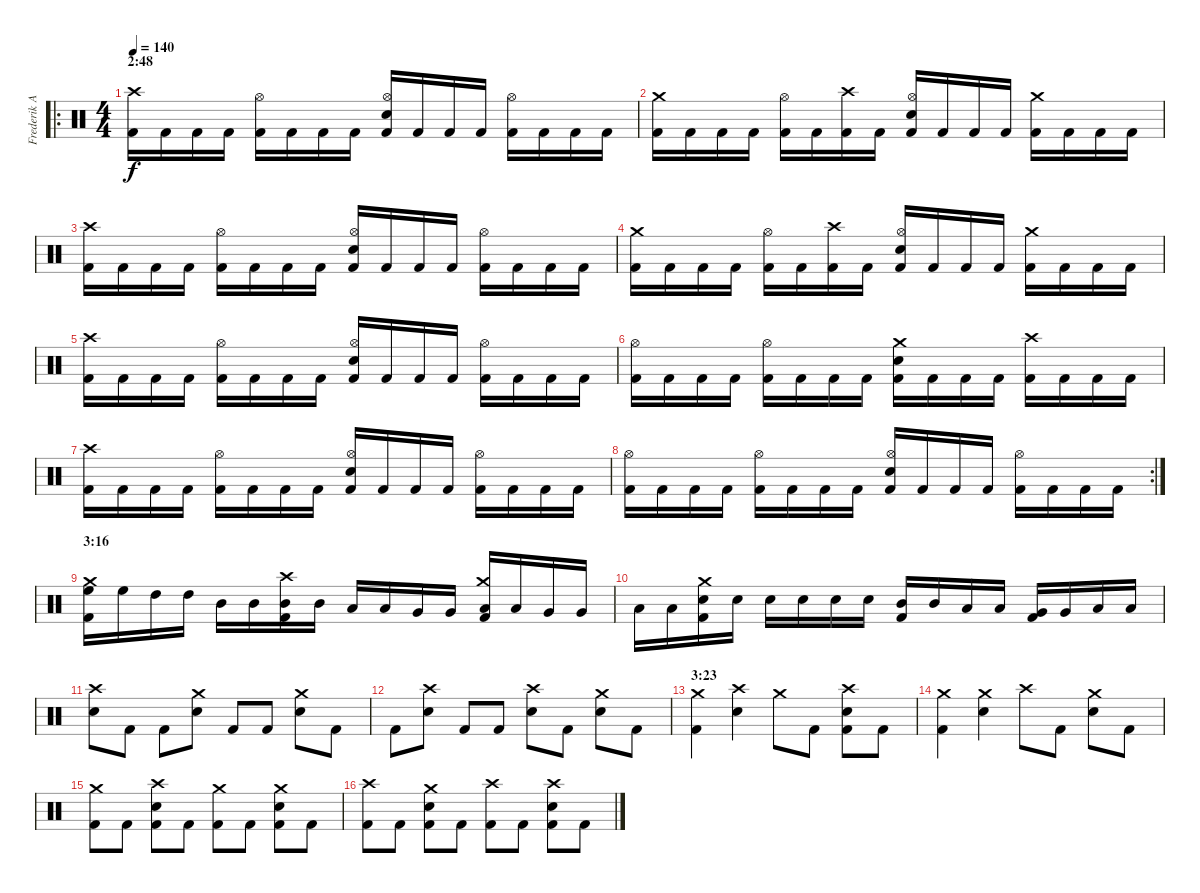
\track ("Frederik Anderson" "Frederik A") {instrument percussion}
\staff {score}
\articulation defaults
\ro
\ts (4 4)
\section ("" "2:48")
\tempo 140
\clef neutral
\ks c
("Crash high (hit)" "Kick (hit) 2").16{dy f} "Kick (hit) 2".16 "Kick (hit) 2".16 "Kick (hit) 2".16 ("Hi-Hat (open)" "Kick (hit) 2").16 "Kick (hit) 2".16 "Kick (hit) 2".16 "Kick (hit) 2".16 ("Hi-Hat (open)" "Electric Snare (hit)" "Kick (hit) 2").16 "Kick (hit) 2".16 "Kick (hit) 2".16 "Kick (hit) 2".16 ("Hi-Hat (open)" "Kick (hit) 2").16 "Kick (hit) 2".16 "Kick (hit) 2".16 "Kick (hit) 2".16 |
("Crash medium (hit)" "Kick (hit) 2").16 "Kick (hit) 2".16 "Kick (hit) 2".16 "Kick (hit) 2".16 ("Hi-Hat (open)" "Kick (hit) 2").16 "Kick (hit) 2".16 ("Crash high (hit)" "Kick (hit) 2").16 "Kick (hit) 2".16 ("Hi-Hat (open)" "Electric Snare (hit)" "Kick (hit) 2").16 "Kick (hit) 2".16 "Kick (hit) 2".16 "Kick (hit) 2".16 ("Crash medium (hit)" "Kick (hit) 2").16 "Kick (hit) 2".16 "Kick (hit) 2".16 "Kick (hit) 2".16 |
("Crash high (hit)" "Kick (hit) 2").16 "Kick (hit) 2".16 "Kick (hit) 2".16 "Kick (hit) 2".16 ("Hi-Hat (open)" "Kick (hit) 2").16 "Kick (hit) 2".16 "Kick (hit) 2".16 "Kick (hit) 2".16 ("Hi-Hat (open)" "Electric Snare (hit)" "Kick (hit) 2").16 "Kick (hit) 2".16 "Kick (hit) 2".16 "Kick (hit) 2".16 ("Hi-Hat (open)" "Kick (hit) 2").16 "Kick (hit) 2".16 "Kick (hit) 2".16 "Kick (hit) 2".16 |
("Crash medium (hit)" "Kick (hit) 2").16 "Kick (hit) 2".16 "Kick (hit) 2".16 "Kick (hit) 2".16 ("Hi-Hat (open)" "Kick (hit) 2").16 "Kick (hit) 2".16 ("Crash high (hit)" "Kick (hit) 2").16 "Kick (hit) 2".16 ("Hi-Hat (open)" "Electric Snare (hit)" "Kick (hit) 2").16 "Kick (hit) 2".16 "Kick (hit) 2".16 "Kick (hit) 2".16 ("Crash medium (hit)" "Kick (hit) 2").16 "Kick (hit) 2".16 "Kick (hit) 2".16 "Kick (hit) 2".16 |
("Crash high (hit)" "Kick (hit) 2").16 "Kick (hit) 2".16 "Kick (hit) 2".16 "Kick (hit) 2".16 ("Hi-Hat (open)" "Kick (hit) 2").16 "Kick (hit) 2".16 "Kick (hit) 2".16 "Kick (hit) 2".16 ("Hi-Hat (open)" "Electric Snare (hit)" "Kick (hit) 2").16 "Kick (hit) 2".16 "Kick (hit) 2".16 "Kick (hit) 2".16 ("Hi-Hat (open)" "Kick (hit) 2").16 "Kick (hit) 2".16 "Kick (hit) 2".16 "Kick (hit) 2".16 |
("Hi-Hat (open)" "Kick (hit) 2").16 "Kick (hit) 2".16 "Kick (hit) 2".16 "Kick (hit) 2".16 ("Hi-Hat (open)" "Kick (hit) 2").16 "Kick (hit) 2".16 "Kick (hit) 2".16 "Kick (hit) 2".16 ("Crash medium (hit)" "Electric Snare (hit)" "Kick (hit) 2").16 "Kick (hit) 2".16 "Kick (hit) 2".16 "Kick (hit) 2".16 ("Crash high (hit)" "Kick (hit) 2").16 "Kick (hit) 2".16 "Kick (hit) 2".16 "Kick (hit) 2".16 |
("Crash high (hit)" "Kick (hit) 2").16 "Kick (hit) 2".16 "Kick (hit) 2".16 "Kick (hit) 2".16 ("Hi-Hat (open)" "Kick (hit) 2").16 "Kick (hit) 2".16 "Kick (hit) 2".16 "Kick (hit) 2".16 ("Hi-Hat (open)" "Electric Snare (hit)" "Kick (hit) 2").16 "Kick (hit) 2".16 "Kick (hit) 2".16 "Kick (hit) 2".16 ("Hi-Hat (open)" "Kick (hit) 2").16 "Kick (hit) 2".16 "Kick (hit) 2".16 "Kick (hit) 2".16 |
\rc 2
("Hi-Hat (open)" "Kick (hit) 2").16 "Kick (hit) 2".16 "Kick (hit) 2".16 "Kick (hit) 2".16 ("Hi-Hat (open)" "Kick (hit) 2").16 "Kick (hit) 2".16 "Kick (hit) 2".16 "Kick (hit) 2".16 ("Hi-Hat (open)" "Electric Snare (hit)" "Kick (hit) 2").16 "Kick (hit) 2".16 "Kick (hit) 2".16 "Kick (hit) 2".16 ("Hi-Hat (open)" "Kick (hit) 2").16 "Kick (hit) 2".16 "Kick (hit) 2".16 "Kick (hit) 2".16 |
\section ("" "3:16")
("Crash medium (hit)" "High Floor Tom (hit)" "Kick (hit) 2").16 "High Floor Tom (hit)".16 "High Tom (hit)".16 "High Tom (hit)".16 "Mid Tom (hit)".16 "Mid Tom (hit)".16 ("Crash high (hit)" "Mid Tom (hit)" "Kick (hit) 2").16 "Mid Tom (hit)".16 "Low Tom (hit)".16 "Low Tom (hit)".16 "Very Low Tom (hit)".16 "Very Low Tom (hit)".16 ("Crash medium (hit)" "Low Tom (hit)" "Kick (hit) 2").16 "Low Tom (hit)".16 "Very Low Tom (hit)".16 "Very Low Tom (hit)".16 |
"Low Floor Tom (hit)".16 "Low Floor Tom (hit)".16 ("Crash medium (hit)" "Electric Snare (hit)" "Kick (hit) 2").16 "Electric Snare (hit)".16 "Electric Snare (hit)".16 "Electric Snare (hit)".16 "Electric Snare (hit)".16 "Electric Snare (hit)".16 ("Mid Tom (hit)" "Kick (hit) 2").16 "Mid Tom (hit)".16 "Low Tom (hit)".16 "Low Tom (hit)".16 ("Very Low Tom (hit)" "Kick (hit) 2").16 "Very Low Tom (hit)".16 "Low Floor Tom (hit)".16 "Low Floor Tom (hit)".16 |
("Crash high (hit)" "Electric Snare (hit)").8 "Kick (hit) 2".8 "Kick (hit) 2".8 ("Crash medium (hit)" "Electric Snare (hit)").8 "Kick (hit) 2".8 "Kick (hit) 2".8 ("Crash medium (hit)" "Electric Snare (hit)").8 "Kick (hit) 2".8 |
"Kick (hit) 2".8 ("Crash high (hit)" "Electric Snare (hit)").8 "Kick (hit) 2".8 "Kick (hit) 2".8 ("Crash high (hit)" "Electric Snare (hit)").8 "Kick (hit) 2".8 ("Crash medium (hit)" "Electric Snare (hit)").8 "Kick (hit) 2".8 |
\section ("" "3:23")
("Crash medium (hit)" "Kick (hit) 2").4 ("Crash high (hit)" "Electric Snare (hit)").4 "Crash medium (hit)".8 "Kick (hit) 2".8 ("Crash high (hit)" "Electric Snare (hit)" "Kick (hit) 2").8 "Kick (hit) 2".8 |
("Crash medium (hit)" "Kick (hit) 2").4 ("Crash medium (hit)" "Electric Snare (hit)").4 "Crash high (hit)".8 "Kick (hit) 2".8 ("Crash medium (hit)" "Electric Snare (hit)").8 "Kick (hit) 2".8 |
("Crash medium (hit)" "Kick (hit) 2").8 "Kick (hit) 2".8 ("Crash high (hit)" "Electric Snare (hit)" "Kick (hit) 2").8 "Kick (hit) 2".8 ("Crash medium (hit)" "Kick (hit) 2").8 "Kick (hit) 2".8 ("Crash medium (hit)" "Electric Snare (hit)" "Kick (hit) 2").8 "Kick (hit) 2".8 |
("Crash high (hit)" "Kick (hit) 2").8 "Kick (hit) 2".8 ("Crash medium (hit)" "Electric Snare (hit)" "Kick (hit) 2").8 "Kick (hit) 2".8 ("Crash high (hit)" "Kick (hit) 2").8 "Kick (hit) 2".8 ("Crash high (hit)" "Electric Snare (hit)" "Kick (hit) 2").8 "Kick (hit) 2".8
